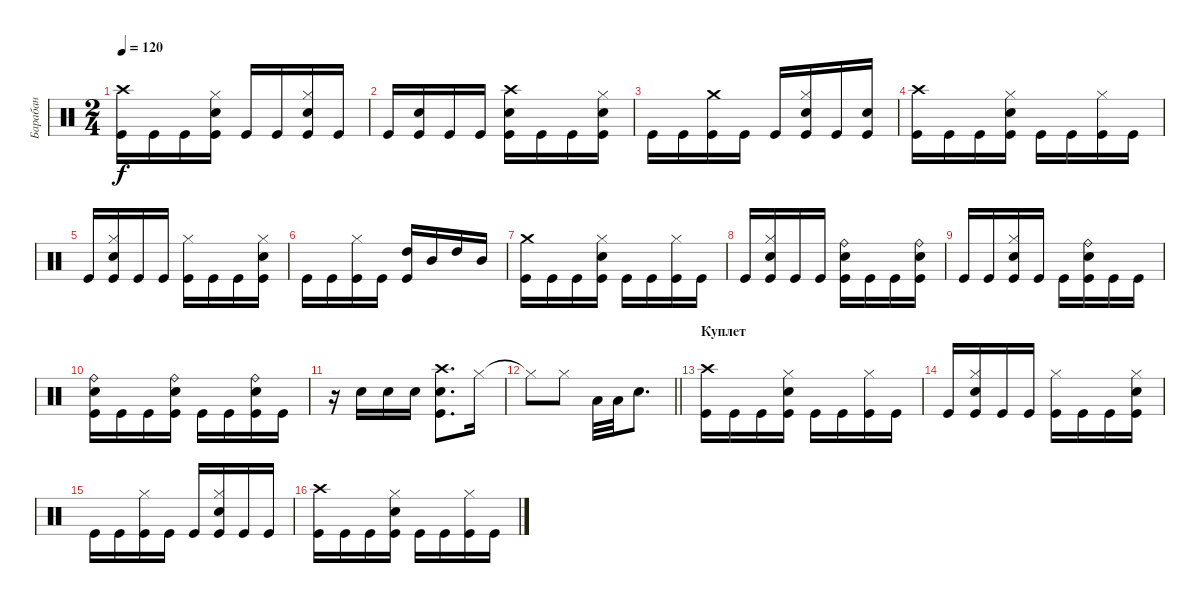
\track ("Барабан" "Барабан") {instrument percussion}
\staff {score}
\articulation defaults
\ts (2 4)
\tempo 120
\clef neutral
\ks c
("Crash high (hit)" "Kick (hit)").16{dy f} "Kick (hit)".16 "Kick (hit)".16 ("Hi-Hat (closed)" "Electric Snare (hit)" "Kick (hit)").16 "Kick (hit)".16 "Kick (hit)".16 ("Hi-Hat (closed)" "Electric Snare (hit)" "Kick (hit)").16 "Kick (hit)".16 |
"Kick (hit)".16 ("Electric Snare (hit)" "Kick (hit)").16 "Kick (hit)".16 "Kick (hit)".16 ("Crash high (hit)" "Electric Snare (hit)" "Kick (hit)").16 "Kick (hit)".16 "Kick (hit)".16 ("Hi-Hat (closed)" "Electric Snare (hit)" "Kick (hit)").16 |
"Kick (hit)".16 "Kick (hit)".16 ("Crash medium (hit)" "Kick (hit)").16 "Kick (hit)".16 "Kick (hit)".16 ("Hi-Hat (closed)" "Electric Snare (hit)" "Kick (hit)").16 "Kick (hit)".16 ("Electric Snare (hit)" "Kick (hit)").16 |
("Crash high (hit)" "Kick (hit)").16 "Kick (hit)".16 "Kick (hit)".16 ("Hi-Hat (closed)" "Electric Snare (hit)" "Kick (hit)").16 "Kick (hit)".16 "Kick (hit)".16 ("Hi-Hat (closed)" "Kick (hit)").16 "Kick (hit)".16 |
"Kick (hit)".16 ("Hi-Hat (closed)" "Electric Snare (hit)" "Kick (hit)").16 "Kick (hit)".16 "Kick (hit)".16 ("Hi-Hat (closed)" "Kick (hit)").16 "Kick (hit)".16 "Kick (hit)".16 ("Hi-Hat (closed)" "Electric Snare (hit)" "Kick (hit)").16 |
"Kick (hit)".16 "Kick (hit)".16 ("Hi-Hat (closed)" "Kick (hit)").16 "Kick (hit)".16 ("High Tom (hit)" "Kick (hit)").16 "Mid Tom (hit)".16 "High Tom (hit)".16 "Mid Tom (hit)".16 |
("Crash medium (hit)" "Kick (hit)").16 "Kick (hit)".16 "Kick (hit)".16 ("Hi-Hat (closed)" "Electric Snare (hit)" "Kick (hit)").16 "Kick (hit)".16 "Kick (hit)".16 ("Hi-Hat (closed)" "Kick (hit)").16 "Kick (hit)".16 |
"Kick (hit)".16 ("Hi-Hat (closed)" "Electric Snare (hit)" "Kick (hit)").16 "Kick (hit)".16 "Kick (hit)".16 ("Ride (bell)" "Electric Snare (hit)" "Kick (hit)").16 "Kick (hit)".16 "Kick (hit)".16 ("Ride (bell)" "Electric Snare (hit)" "Kick (hit)").16 |
"Kick (hit)".16 "Kick (hit)".16 ("Hi-Hat (closed)" "Electric Snare (hit)" "Kick (hit)").16 "Kick (hit)".16 "Kick (hit)".16 ("Ride (bell)" "Electric Snare (hit)" "Kick (hit)").16 "Kick (hit)".16 "Kick (hit)".16 |
("Ride (bell)" "Electric Snare (hit)" "Kick (hit)").16 "Kick (hit)".16 "Kick (hit)".16 ("Ride (bell)" "Electric Snare (hit)" "Kick (hit)").16 "Kick (hit)".16 "Kick (hit)".16 ("Ride (bell)" "Electric Snare (hit)" "Kick (hit)").16 "Kick (hit)".16 |
r.16 "Electric Snare (hit)".16 "Electric Snare (hit)".16 "Electric Snare (hit)".16 ("Crash high (hit)" "Electric Snare (hit)" "Kick (hit)").8{d} "Hi-Hat (closed)".16 |
\barLineRight lightlight "Hi-Hat (closed)"{t}.8 "Hi-Hat (closed)".8 "Low Tom (hit)".32 "Low Tom (hit)".32 "Electric Snare (hit)".8{d}
|
\section ("" "Куплет")
("Crash high (hit)" "Kick (hit)").16 "Kick (hit)".16 "Kick (hit)".16 ("Hi-Hat (closed)" "Electric Snare (hit)" "Kick (hit)").16 "Kick (hit)".16 "Kick (hit)".16 ("Hi-Hat (closed)" "Kick (hit)").16 "Kick (hit)".16 |
"Kick (hit)".16 ("Hi-Hat (closed)" "Electric Snare (hit)" "Kick (hit)").16 "Kick (hit)".16 "Kick (hit)".16 ("Hi-Hat (closed)" "Kick (hit)").16 "Kick (hit)".16 "Kick (hit)".16 ("Hi-Hat (closed)" "Electric Snare (hit)" "Kick (hit)").16 |
"Kick (hit)".16 "Kick (hit)".16 ("Hi-Hat (closed)" "Kick (hit)").16 "Kick (hit)".16 "Kick (hit)".16 ("Hi-Hat (closed)" "Electric Snare (hit)" "Kick (hit)").16 "Kick (hit)".16 "Kick (hit)".16 |
("Crash high (hit)" "Kick (hit)").16 "Kick (hit)".16 "Kick (hit)".16 ("Hi-Hat (closed)" "Electric Snare (hit)" "Kick (hit)").16 "Kick (hit)".16 "Kick (hit)".16 ("Hi-Hat (closed)" "Kick (hit)").16 "Kick (hit)".16
